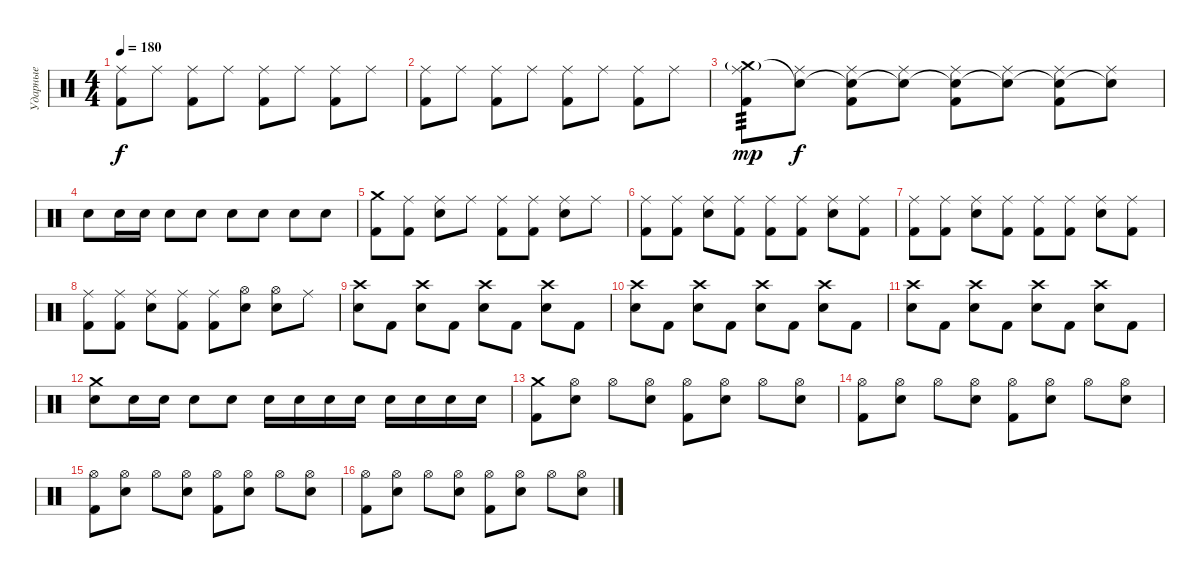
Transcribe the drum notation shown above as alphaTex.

\track ("Ударные" "Ударные") {instrument percussion}
\staff {score}
\articulation defaults
\ts (4 4)
\tempo 180
\clef neutral
\ks c
("Ride (middle)" "Kick (hit) 2").8{dy f} "Ride (middle)".8 ("Ride (middle)" "Kick (hit) 2").8 "Ride (middle)".8 ("Ride (middle)" "Kick (hit) 2").8 "Ride (middle)".8 ("Ride (middle)" "Kick (hit) 2").8 "Ride (middle)".8 |
("Ride (middle)" "Kick (hit) 2").8 "Ride (middle)".8 ("Ride (middle)" "Kick (hit) 2").8 "Ride (middle)".8 ("Ride (middle)" "Kick (hit) 2").8 "Ride (middle)".8 ("Ride (middle)" "Kick (hit) 2").8 "Ride (middle)".8 |
("Ride (middle)" "Crash medium (hit)"{g} "Kick (hit) 2").8{tp 3 dy mp} ("Ride (middle)" "Snare (hit)"{t}).8{dy f} ("Ride (middle)" "Snare (hit)"{t} "Kick (hit) 2").8 ("Ride (middle)" "Snare (hit)"{t}).8 ("Ride (middle)" "Snare (hit)"{t} "Kick (hit) 2").8 ("Ride (middle)" "Snare (hit)"{t}).8 ("Ride (middle)" "Snare (hit)"{t} "Kick (hit) 2").8 ("Ride (middle)" "Snare (hit)"{t}).8 |
"Snare (hit) 2".8 "Snare (hit) 2".16 "Snare (hit) 2".16 "Snare (hit) 2".8 "Snare (hit) 2".8 "Snare (hit) 2".8 "Snare (hit) 2".8 "Snare (hit) 2".8 "Snare (hit) 2".8 |
("Crash medium (hit)" "Kick (hit) 2").8 ("Ride (middle)" "Kick (hit) 2").8 ("Ride (middle)" "Snare (hit) 2").8 "Ride (middle)".8 ("Ride (middle)" "Kick (hit) 2").8 ("Ride (middle)" "Kick (hit) 2").8 ("Ride (middle)" "Snare (hit) 2").8 "Ride (middle)".8 |
("Ride (middle)" "Kick (hit) 2").8 ("Ride (middle)" "Kick (hit) 2").8 ("Ride (middle)" "Snare (hit) 2").8 ("Ride (middle)" "Kick (hit) 2").8 ("Ride (middle)" "Kick (hit) 2").8 ("Ride (middle)" "Kick (hit) 2").8 ("Ride (middle)" "Snare (hit) 2").8 ("Ride (middle)" "Kick (hit) 2").8 |
("Ride (middle)" "Kick (hit) 2").8 ("Ride (middle)" "Kick (hit) 2").8 ("Ride (middle)" "Snare (hit) 2").8 ("Ride (middle)" "Kick (hit) 2").8 ("Ride (middle)" "Kick (hit) 2").8 ("Ride (middle)" "Kick (hit) 2").8 ("Ride (middle)" "Snare (hit) 2").8 ("Ride (middle)" "Kick (hit) 2").8 |
("Ride (middle)" "Kick (hit) 2").8 ("Ride (middle)" "Kick (hit) 2").8 ("Ride (middle)" "Snare (hit) 2").8 ("Ride (middle)" "Kick (hit) 2").8 ("Ride (middle)" "Kick (hit) 2").8 ("Hi-Hat (open)" "Snare (hit) 2").8 ("Hi-Hat (open)" "Snare (hit) 2").8 "Ride (middle)".8 |
("Crash high (hit)" "Snare (hit) 2").8 "Kick (hit) 2".8 ("Crash high (hit)" "Snare (hit) 2").8 "Kick (hit) 2".8 ("Crash high (hit)" "Snare (hit) 2").8 "Kick (hit) 2".8 ("Crash high (hit)" "Snare (hit) 2").8 "Kick (hit) 2".8 |
("Crash high (hit)" "Snare (hit) 2").8 "Kick (hit) 2".8 ("Crash high (hit)" "Snare (hit) 2").8 "Kick (hit) 2".8 ("Crash high (hit)" "Snare (hit) 2").8 "Kick (hit) 2".8 ("Crash high (hit)" "Snare (hit) 2").8 "Kick (hit) 2".8 |
("Crash high (hit)" "Snare (hit) 2").8 "Kick (hit) 2".8 ("Crash high (hit)" "Snare (hit) 2").8 "Kick (hit) 2".8 ("Crash high (hit)" "Snare (hit) 2").8 "Kick (hit) 2".8 ("Crash high (hit)" "Snare (hit) 2").8 "Kick (hit) 2".8 |
("Crash medium (hit)" "Snare (hit) 2").8 "Snare (hit) 2".16 "Snare (hit) 2".16 "Snare (hit) 2".8 "Snare (hit) 2".8 "Snare (hit) 2".16 "Snare (hit) 2".16 "Snare (hit) 2".16 "Snare (hit) 2".16 "Snare (hit) 2".16 "Snare (hit) 2".16 "Snare (hit) 2".16 "Snare (hit) 2".16 |
("Crash medium (hit)" "Kick (hit) 2").8 ("Hi-Hat (open)" "Snare (hit) 2").8 "Hi-Hat (open)".8 ("Hi-Hat (open)" "Snare (hit) 2").8 ("Hi-Hat (open)" "Kick (hit) 2").8 ("Hi-Hat (open)" "Snare (hit) 2").8 "Hi-Hat (open)".8 ("Hi-Hat (open)" "Snare (hit) 2").8 |
("Hi-Hat (open)" "Kick (hit) 2").8 ("Hi-Hat (open)" "Snare (hit) 2").8 "Hi-Hat (open)".8 ("Hi-Hat (open)" "Snare (hit) 2").8 ("Hi-Hat (open)" "Kick (hit) 2").8 ("Hi-Hat (open)" "Snare (hit) 2").8 "Hi-Hat (open)".8 ("Hi-Hat (open)" "Snare (hit) 2").8 |
("Hi-Hat (open)" "Kick (hit) 2").8 ("Hi-Hat (open)" "Snare (hit) 2").8 "Hi-Hat (open)".8 ("Hi-Hat (open)" "Snare (hit) 2").8 ("Hi-Hat (open)" "Kick (hit) 2").8 ("Hi-Hat (open)" "Snare (hit) 2").8 "Hi-Hat (open)".8 ("Hi-Hat (open)" "Snare (hit) 2").8 |
("Hi-Hat (open)" "Kick (hit) 2").8 ("Hi-Hat (open)" "Snare (hit) 2").8 "Hi-Hat (open)".8 ("Hi-Hat (open)" "Snare (hit) 2").8 ("Hi-Hat (open)" "Kick (hit) 2").8 ("Hi-Hat (open)" "Snare (hit) 2").8 "Hi-Hat (open)".8 ("Hi-Hat (open)" "Snare (hit) 2").8
